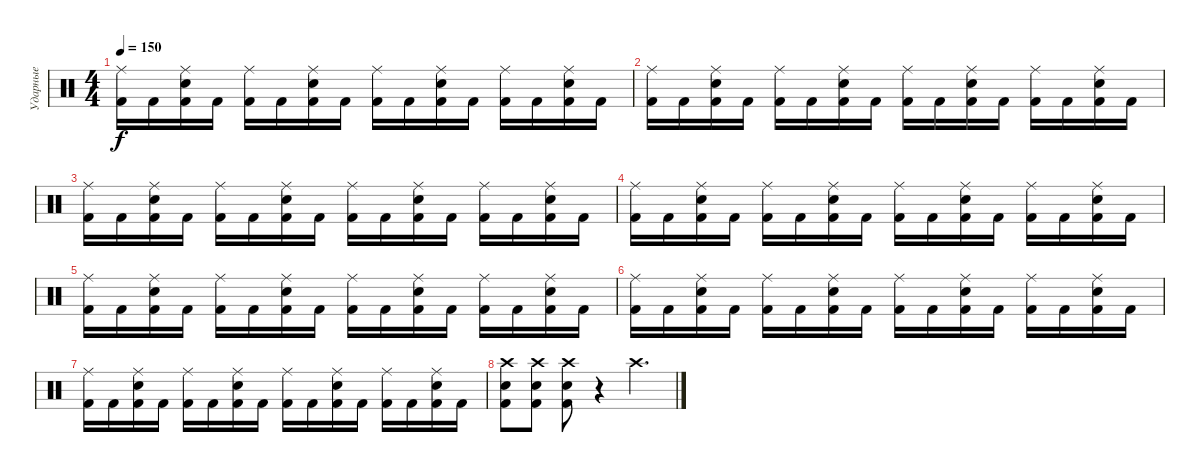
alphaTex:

\track ("Ударные" "Ударные") {instrument percussion}
\staff {score}
\articulation defaults
\ts (4 4)
\tempo 150
\clef neutral
\ks c
("Ride (middle)" "Kick (hit) 2").16{dy f} "Kick (hit) 2".16 ("Ride (middle)" "Electric Snare (hit)" "Kick (hit) 2").16 "Kick (hit) 2".16 ("Ride (middle)" "Kick (hit) 2").16 "Kick (hit) 2".16 ("Ride (middle)" "Electric Snare (hit)" "Kick (hit) 2").16 "Kick (hit) 2".16 ("Ride (middle)" "Kick (hit) 2").16 "Kick (hit) 2".16 ("Ride (middle)" "Electric Snare (hit)" "Kick (hit) 2").16 "Kick (hit) 2".16 ("Ride (middle)" "Kick (hit) 2").16 "Kick (hit) 2".16 ("Ride (middle)" "Electric Snare (hit)" "Kick (hit) 2").16 "Kick (hit) 2".16 |
("Ride (middle)" "Kick (hit) 2").16 "Kick (hit) 2".16 ("Ride (middle)" "Electric Snare (hit)" "Kick (hit) 2").16 "Kick (hit) 2".16 ("Ride (middle)" "Kick (hit) 2").16 "Kick (hit) 2".16 ("Ride (middle)" "Electric Snare (hit)" "Kick (hit) 2").16 "Kick (hit) 2".16 ("Ride (middle)" "Kick (hit) 2").16 "Kick (hit) 2".16 ("Ride (middle)" "Electric Snare (hit)" "Kick (hit) 2").16 "Kick (hit) 2".16 ("Ride (middle)" "Kick (hit) 2").16 "Kick (hit) 2".16 ("Ride (middle)" "Electric Snare (hit)" "Kick (hit) 2").16 "Kick (hit) 2".16 |
("Ride (middle)" "Kick (hit) 2").16 "Kick (hit) 2".16 ("Ride (middle)" "Electric Snare (hit)" "Kick (hit) 2").16 "Kick (hit) 2".16 ("Ride (middle)" "Kick (hit) 2").16 "Kick (hit) 2".16 ("Ride (middle)" "Electric Snare (hit)" "Kick (hit) 2").16 "Kick (hit) 2".16 ("Ride (middle)" "Kick (hit) 2").16 "Kick (hit) 2".16 ("Ride (middle)" "Electric Snare (hit)" "Kick (hit) 2").16 "Kick (hit) 2".16 ("Ride (middle)" "Kick (hit) 2").16 "Kick (hit) 2".16 ("Ride (middle)" "Electric Snare (hit)" "Kick (hit) 2").16 "Kick (hit) 2".16 |
("Ride (middle)" "Kick (hit) 2").16 "Kick (hit) 2".16 ("Ride (middle)" "Electric Snare (hit)" "Kick (hit) 2").16 "Kick (hit) 2".16 ("Ride (middle)" "Kick (hit) 2").16 "Kick (hit) 2".16 ("Ride (middle)" "Electric Snare (hit)" "Kick (hit) 2").16 "Kick (hit) 2".16 ("Ride (middle)" "Kick (hit) 2").16 "Kick (hit) 2".16 ("Ride (middle)" "Electric Snare (hit)" "Kick (hit) 2").16 "Kick (hit) 2".16 ("Ride (middle)" "Kick (hit) 2").16 "Kick (hit) 2".16 ("Ride (middle)" "Electric Snare (hit)" "Kick (hit) 2").16 "Kick (hit) 2".16 |
("Ride (middle)" "Kick (hit) 2").16 "Kick (hit) 2".16 ("Ride (middle)" "Electric Snare (hit)" "Kick (hit) 2").16 "Kick (hit) 2".16 ("Ride (middle)" "Kick (hit) 2").16 "Kick (hit) 2".16 ("Ride (middle)" "Electric Snare (hit)" "Kick (hit) 2").16 "Kick (hit) 2".16 ("Ride (middle)" "Kick (hit) 2").16 "Kick (hit) 2".16 ("Ride (middle)" "Electric Snare (hit)" "Kick (hit) 2").16 "Kick (hit) 2".16 ("Ride (middle)" "Kick (hit) 2").16 "Kick (hit) 2".16 ("Ride (middle)" "Electric Snare (hit)" "Kick (hit) 2").16 "Kick (hit) 2".16 |
("Ride (middle)" "Kick (hit) 2").16 "Kick (hit) 2".16 ("Ride (middle)" "Electric Snare (hit)" "Kick (hit) 2").16 "Kick (hit) 2".16 ("Ride (middle)" "Kick (hit) 2").16 "Kick (hit) 2".16 ("Ride (middle)" "Electric Snare (hit)" "Kick (hit) 2").16 "Kick (hit) 2".16 ("Ride (middle)" "Kick (hit) 2").16 "Kick (hit) 2".16 ("Ride (middle)" "Electric Snare (hit)" "Kick (hit) 2").16 "Kick (hit) 2".16 ("Ride (middle)" "Kick (hit) 2").16 "Kick (hit) 2".16 ("Ride (middle)" "Electric Snare (hit)" "Kick (hit) 2").16 "Kick (hit) 2".16 |
("Ride (middle)" "Kick (hit) 2").16 "Kick (hit) 2".16 ("Ride (middle)" "Electric Snare (hit)" "Kick (hit) 2").16 "Kick (hit) 2".16 ("Ride (middle)" "Kick (hit) 2").16 "Kick (hit) 2".16 ("Ride (middle)" "Electric Snare (hit)" "Kick (hit) 2").16 "Kick (hit) 2".16 ("Ride (middle)" "Kick (hit) 2").16 "Kick (hit) 2".16 ("Ride (middle)" "Electric Snare (hit)" "Kick (hit) 2").16 "Kick (hit) 2".16 ("Ride (middle)" "Kick (hit) 2").16 "Kick (hit) 2".16 ("Ride (middle)" "Electric Snare (hit)" "Kick (hit) 2").16 "Kick (hit) 2".16 |
("Crash high (hit)" "Electric Snare (hit)" "Kick (hit) 2").8 ("Crash high (hit)" "Electric Snare (hit)" "Kick (hit) 2").8 ("Crash high (hit)" "Electric Snare (hit)" "Kick (hit) 2").8 r.4 "Crash high (hit)".4{d}
